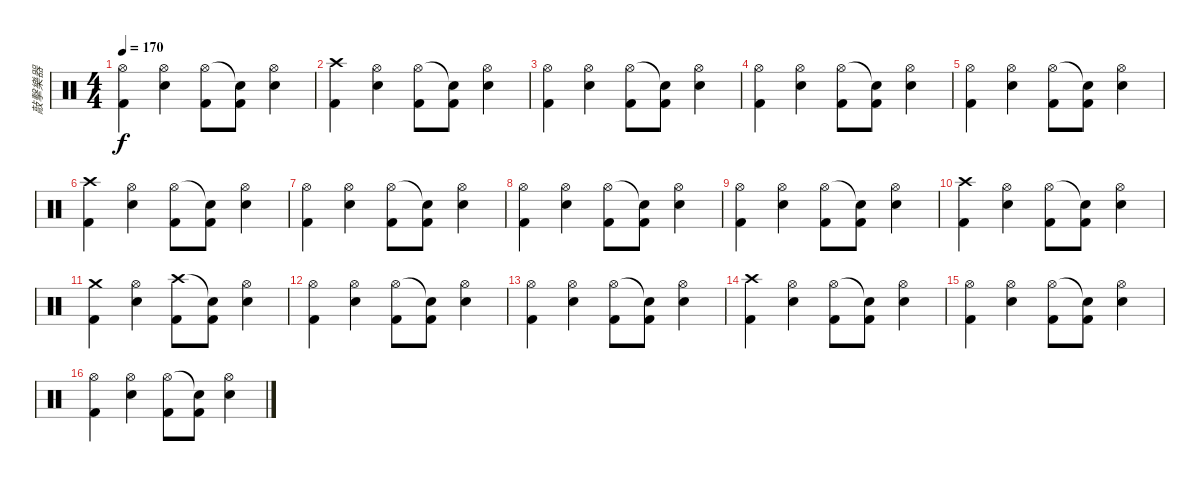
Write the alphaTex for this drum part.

\track ("敲擊樂器" "敲擊樂器") {instrument percussion}
\staff {score}
\articulation defaults
\ts (4 4)
\tempo 170
\clef neutral
\ks c
("Hi-Hat (open)" "Kick (hit) 2").4{dy f} ("Hi-Hat (open)" "Snare (hit) 2").4 ("Hi-Hat (open)" "Kick (hit) 2").8 ("Snare (hit)"{t} "Kick (hit) 2").8 ("Hi-Hat (open)" "Snare (hit) 2").4 |
("Crash high (hit)" "Kick (hit) 2").4 ("Hi-Hat (open)" "Snare (hit) 2").4 ("Hi-Hat (open)" "Kick (hit) 2").8 ("Snare (hit)"{t} "Kick (hit) 2").8 ("Hi-Hat (open)" "Snare (hit) 2").4 |
("Hi-Hat (open)" "Kick (hit) 2").4 ("Hi-Hat (open)" "Snare (hit) 2").4 ("Hi-Hat (open)" "Kick (hit) 2").8 ("Snare (hit)"{t} "Kick (hit) 2").8 ("Hi-Hat (open)" "Snare (hit) 2").4 |
("Hi-Hat (open)" "Kick (hit) 2").4 ("Hi-Hat (open)" "Snare (hit) 2").4 ("Hi-Hat (open)" "Kick (hit) 2").8 ("Snare (hit)"{t} "Kick (hit) 2").8 ("Hi-Hat (open)" "Snare (hit) 2").4 |
("Hi-Hat (open)" "Kick (hit) 2").4 ("Hi-Hat (open)" "Snare (hit) 2").4 ("Hi-Hat (open)" "Kick (hit) 2").8 ("Snare (hit)"{t} "Kick (hit) 2").8 ("Hi-Hat (open)" "Snare (hit) 2").4 |
("Crash high (hit)" "Kick (hit) 2").4 ("Hi-Hat (open)" "Snare (hit) 2").4 ("Hi-Hat (open)" "Kick (hit) 2").8 ("Snare (hit)"{t} "Kick (hit) 2").8 ("Hi-Hat (open)" "Snare (hit) 2").4 |
("Hi-Hat (open)" "Kick (hit) 2").4 ("Hi-Hat (open)" "Snare (hit) 2").4 ("Hi-Hat (open)" "Kick (hit) 2").8 ("Snare (hit)"{t} "Kick (hit) 2").8 ("Hi-Hat (open)" "Snare (hit) 2").4 |
("Hi-Hat (open)" "Kick (hit) 2").4 ("Hi-Hat (open)" "Snare (hit) 2").4 ("Hi-Hat (open)" "Kick (hit) 2").8 ("Snare (hit)"{t} "Kick (hit) 2").8 ("Hi-Hat (open)" "Snare (hit) 2").4 |
("Hi-Hat (open)" "Kick (hit) 2").4 ("Hi-Hat (open)" "Snare (hit) 2").4 ("Hi-Hat (open)" "Kick (hit) 2").8 ("Snare (hit)"{t} "Kick (hit) 2").8 ("Hi-Hat (open)" "Snare (hit) 2").4 |
("Crash high (hit)" "Kick (hit) 2").4 ("Hi-Hat (open)" "Snare (hit) 2").4 ("Hi-Hat (open)" "Kick (hit) 2").8 ("Snare (hit)"{t} "Kick (hit) 2").8 ("Hi-Hat (open)" "Snare (hit) 2").4 |
("Crash medium (hit)" "Kick (hit) 2").4 ("Hi-Hat (open)" "Snare (hit) 2").4 ("Crash high (hit)" "Kick (hit) 2").8 ("Snare (hit)"{t} "Kick (hit) 2").8 ("Hi-Hat (open)" "Snare (hit) 2").4 |
("Hi-Hat (open)" "Kick (hit) 2").4 ("Hi-Hat (open)" "Snare (hit) 2").4 ("Hi-Hat (open)" "Kick (hit) 2").8 ("Snare (hit)"{t} "Kick (hit) 2").8 ("Hi-Hat (open)" "Snare (hit) 2").4 |
("Hi-Hat (open)" "Kick (hit) 2").4 ("Hi-Hat (open)" "Snare (hit) 2").4 ("Hi-Hat (open)" "Kick (hit) 2").8 ("Snare (hit)"{t} "Kick (hit) 2").8 ("Hi-Hat (open)" "Snare (hit) 2").4 |
("Crash high (hit)" "Kick (hit) 2").4 ("Hi-Hat (open)" "Snare (hit) 2").4 ("Hi-Hat (open)" "Kick (hit) 2").8 ("Snare (hit)"{t} "Kick (hit) 2").8 ("Hi-Hat (open)" "Snare (hit) 2").4 |
("Hi-Hat (open)" "Kick (hit) 2").4 ("Hi-Hat (open)" "Snare (hit) 2").4 ("Hi-Hat (open)" "Kick (hit) 2").8 ("Snare (hit)"{t} "Kick (hit) 2").8 ("Hi-Hat (open)" "Snare (hit) 2").4 |
("Hi-Hat (open)" "Kick (hit) 2").4 ("Hi-Hat (open)" "Snare (hit) 2").4 ("Hi-Hat (open)" "Kick (hit) 2").8 ("Snare (hit)"{t} "Kick (hit) 2").8 ("Hi-Hat (open)" "Snare (hit) 2").4
